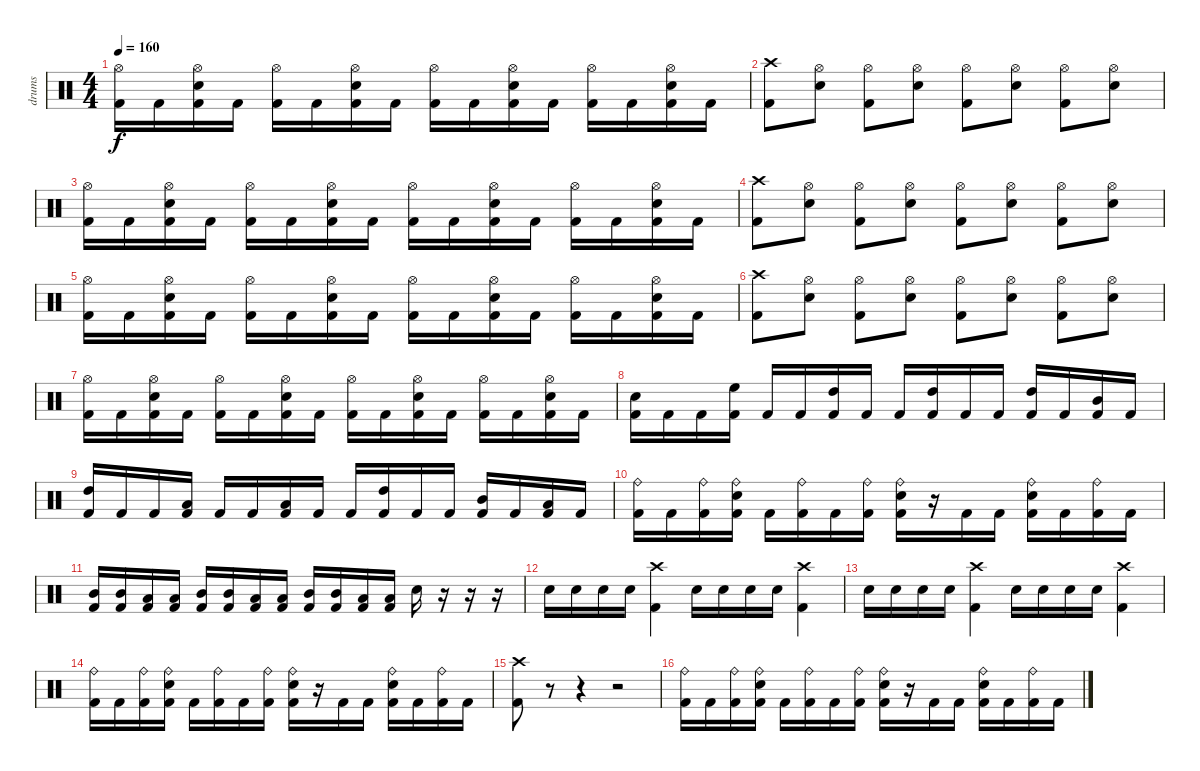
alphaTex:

\track ("drums" "drums") {instrument percussion}
\staff {score}
\articulation defaults
\ts (4 4)
\tempo 160
\clef neutral
\ks c
("Hi-Hat (open)" "Kick (hit) 2").16{dy f} "Kick (hit) 2".16 ("Hi-Hat (open)" "Snare (hit) 2" "Kick (hit) 2").16 "Kick (hit) 2".16 ("Hi-Hat (open)" "Kick (hit) 2").16 "Kick (hit) 2".16 ("Hi-Hat (open)" "Snare (hit) 2" "Kick (hit) 2").16 "Kick (hit) 2".16 ("Hi-Hat (open)" "Kick (hit) 2").16 "Kick (hit) 2".16 ("Hi-Hat (open)" "Snare (hit) 2" "Kick (hit) 2").16 "Kick (hit) 2".16 ("Hi-Hat (open)" "Kick (hit) 2").16 "Kick (hit) 2".16 ("Hi-Hat (open)" "Snare (hit) 2" "Kick (hit) 2").16 "Kick (hit) 2".16 |
("Crash high (hit)" "Kick (hit) 2").8 ("Hi-Hat (open)" "Snare (hit) 2").8 ("Hi-Hat (open)" "Kick (hit) 2").8 ("Hi-Hat (open)" "Snare (hit) 2").8 ("Hi-Hat (open)" "Kick (hit) 2").8 ("Hi-Hat (open)" "Snare (hit) 2").8 ("Hi-Hat (open)" "Kick (hit) 2").8 ("Hi-Hat (open)" "Snare (hit) 2").8 |
("Hi-Hat (open)" "Kick (hit) 2").16 "Kick (hit) 2".16 ("Hi-Hat (open)" "Snare (hit) 2" "Kick (hit) 2").16 "Kick (hit) 2".16 ("Hi-Hat (open)" "Kick (hit) 2").16 "Kick (hit) 2".16 ("Hi-Hat (open)" "Snare (hit) 2" "Kick (hit) 2").16 "Kick (hit) 2".16 ("Hi-Hat (open)" "Kick (hit) 2").16 "Kick (hit) 2".16 ("Hi-Hat (open)" "Snare (hit) 2" "Kick (hit) 2").16 "Kick (hit) 2".16 ("Hi-Hat (open)" "Kick (hit) 2").16 "Kick (hit) 2".16 ("Hi-Hat (open)" "Snare (hit) 2" "Kick (hit) 2").16 "Kick (hit) 2".16 |
("Crash high (hit)" "Kick (hit) 2").8 ("Hi-Hat (open)" "Snare (hit) 2").8 ("Hi-Hat (open)" "Kick (hit) 2").8 ("Hi-Hat (open)" "Snare (hit) 2").8 ("Hi-Hat (open)" "Kick (hit) 2").8 ("Hi-Hat (open)" "Snare (hit) 2").8 ("Hi-Hat (open)" "Kick (hit) 2").8 ("Hi-Hat (open)" "Snare (hit) 2").8 |
("Hi-Hat (open)" "Kick (hit) 2").16 "Kick (hit) 2".16 ("Hi-Hat (open)" "Snare (hit) 2" "Kick (hit) 2").16 "Kick (hit) 2".16 ("Hi-Hat (open)" "Kick (hit) 2").16 "Kick (hit) 2".16 ("Hi-Hat (open)" "Snare (hit) 2" "Kick (hit) 2").16 "Kick (hit) 2".16 ("Hi-Hat (open)" "Kick (hit) 2").16 "Kick (hit) 2".16 ("Hi-Hat (open)" "Snare (hit) 2" "Kick (hit) 2").16 "Kick (hit) 2".16 ("Hi-Hat (open)" "Kick (hit) 2").16 "Kick (hit) 2".16 ("Hi-Hat (open)" "Snare (hit) 2" "Kick (hit) 2").16 "Kick (hit) 2".16 |
("Crash high (hit)" "Kick (hit) 2").8 ("Hi-Hat (open)" "Snare (hit) 2").8 ("Hi-Hat (open)" "Kick (hit) 2").8 ("Hi-Hat (open)" "Snare (hit) 2").8 ("Hi-Hat (open)" "Kick (hit) 2").8 ("Hi-Hat (open)" "Snare (hit) 2").8 ("Hi-Hat (open)" "Kick (hit) 2").8 ("Hi-Hat (open)" "Snare (hit) 2").8 |
("Hi-Hat (open)" "Kick (hit) 2").16 "Kick (hit) 2".16 ("Hi-Hat (open)" "Snare (hit) 2" "Kick (hit) 2").16 "Kick (hit) 2".16 ("Hi-Hat (open)" "Kick (hit) 2").16 "Kick (hit) 2".16 ("Hi-Hat (open)" "Snare (hit) 2" "Kick (hit) 2").16 "Kick (hit) 2".16 ("Hi-Hat (open)" "Kick (hit) 2").16 "Kick (hit) 2".16 ("Hi-Hat (open)" "Snare (hit) 2" "Kick (hit) 2").16 "Kick (hit) 2".16 ("Hi-Hat (open)" "Kick (hit) 2").16 "Kick (hit) 2".16 ("Hi-Hat (open)" "Snare (hit) 2" "Kick (hit) 2").16 "Kick (hit) 2".16 |
("Snare (hit) 2" "Kick (hit) 2").16 "Kick (hit) 2".16 "Kick (hit) 2".16 ("High Floor Tom (hit)" "Kick (hit) 2").16 "Kick (hit) 2".16 "Kick (hit) 2".16 ("High Tom (hit)" "Kick (hit) 2").16 "Kick (hit) 2".16 "Kick (hit) 2".16 ("High Tom (hit)" "Kick (hit) 2").16 "Kick (hit) 2".16 "Kick (hit) 2".16 ("High Tom (hit)" "Kick (hit) 2").16 "Kick (hit) 2".16 ("Mid Tom (hit)" "Kick (hit) 2").16 "Kick (hit) 2".16 |
("High Tom (hit)" "Kick (hit) 2").16 "Kick (hit) 2".16 "Kick (hit) 2".16 ("Low Tom (hit)" "Kick (hit) 2").16 "Kick (hit) 2".16 "Kick (hit) 2".16 ("Low Tom (hit)" "Kick (hit) 2").16 "Kick (hit) 2".16 "Kick (hit) 2".16 ("High Tom (hit)" "Kick (hit) 2").16 "Kick (hit) 2".16 "Kick (hit) 2".16 ("Mid Tom (hit)" "Kick (hit) 2").16 "Kick (hit) 2".16 ("Low Tom (hit)" "Kick (hit) 2").16 "Kick (hit) 2".16 |
("Ride (bell)" "Kick (hit) 2").16 "Kick (hit) 2".16 ("Ride (bell)" "Kick (hit) 2").16 ("Ride (bell)" "Snare (hit) 2" "Kick (hit) 2").16 "Kick (hit) 2".16 ("Ride (bell)" "Kick (hit) 2").16 "Kick (hit) 2".16 ("Ride (bell)" "Kick (hit) 2").16 ("Ride (bell)" "Snare (hit) 2" "Kick (hit) 2").16 r.16 "Kick (hit) 2".16 "Kick (hit) 2".16 ("Ride (bell)" "Snare (hit) 2" "Kick (hit) 2").16 "Kick (hit) 2".16 ("Ride (bell)" "Kick (hit) 2").16 "Kick (hit) 2".16 |
("Mid Tom (hit)" "Kick (hit) 2").16 ("Mid Tom (hit)" "Kick (hit) 2").16 ("Low Tom (hit)" "Kick (hit) 2").16 ("Low Tom (hit)" "Kick (hit) 2").16 ("Mid Tom (hit)" "Kick (hit) 2").16 ("Mid Tom (hit)" "Kick (hit) 2").16 ("Low Tom (hit)" "Kick (hit) 2").16 ("Low Tom (hit)" "Kick (hit) 2").16 ("Mid Tom (hit)" "Kick (hit) 2").16 ("Mid Tom (hit)" "Kick (hit) 2").16 ("Low Tom (hit)" "Kick (hit) 2").16 ("Low Tom (hit)" "Kick (hit) 2").16 "Snare (hit) 2".16 r.16 r.16 r.16 |
"Snare (hit) 2".16 "Snare (hit) 2".16 "Snare (hit) 2".16 "Snare (hit) 2".16 ("Crash high (hit)" "Kick (hit) 2").4 "Snare (hit) 2".16 "Snare (hit) 2".16 "Snare (hit) 2".16 "Snare (hit) 2".16 ("Crash high (hit)" "Kick (hit) 2").4 |
"Snare (hit) 2".16 "Snare (hit) 2".16 "Snare (hit) 2".16 "Snare (hit) 2".16 ("Crash high (hit)" "Kick (hit) 2").4 "Snare (hit) 2".16 "Snare (hit) 2".16 "Snare (hit) 2".16 "Snare (hit) 2".16 ("Crash high (hit)" "Kick (hit) 2").4 |
("Ride (bell)" "Kick (hit) 2").16 "Kick (hit) 2".16 ("Ride (bell)" "Kick (hit) 2").16 ("Ride (bell)" "Snare (hit) 2" "Kick (hit) 2").16 "Kick (hit) 2".16 ("Ride (bell)" "Kick (hit) 2").16 "Kick (hit) 2".16 ("Ride (bell)" "Kick (hit) 2").16 ("Ride (bell)" "Snare (hit) 2" "Kick (hit) 2").16 r.16 "Kick (hit) 2".16 "Kick (hit) 2".16 ("Ride (bell)" "Snare (hit) 2" "Kick (hit) 2").16 "Kick (hit) 2".16 ("Ride (bell)" "Kick (hit) 2").16 "Kick (hit) 2".16 |
("Crash high (hit)" "Kick (hit) 2").8 r.8 r.4 r.2 |
("Ride (bell)" "Kick (hit) 2").16 "Kick (hit) 2".16 ("Ride (bell)" "Kick (hit) 2").16 ("Ride (bell)" "Snare (hit) 2" "Kick (hit) 2").16 "Kick (hit) 2".16 ("Ride (bell)" "Kick (hit) 2").16 "Kick (hit) 2".16 ("Ride (bell)" "Kick (hit) 2").16 ("Ride (bell)" "Snare (hit) 2" "Kick (hit) 2").16 r.16 "Kick (hit) 2".16 "Kick (hit) 2".16 ("Ride (bell)" "Snare (hit) 2" "Kick (hit) 2").16 "Kick (hit) 2".16 ("Ride (bell)" "Kick (hit) 2").16 "Kick (hit) 2".16
